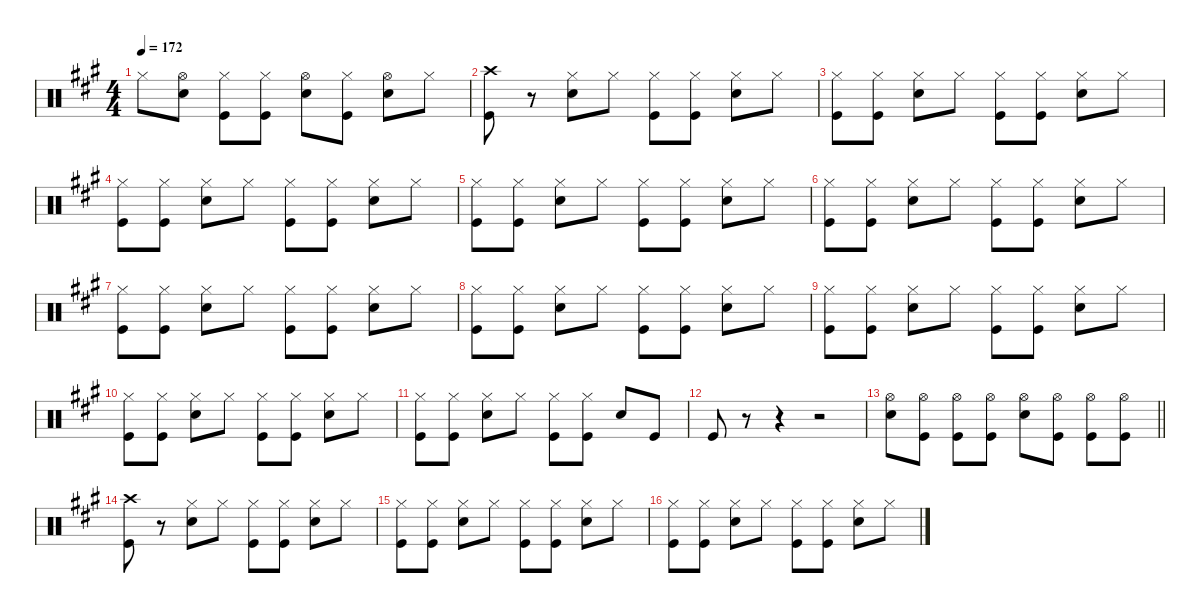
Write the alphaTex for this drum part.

\defaultSystemsLayout 4
\hideDynamics
\bracketExtendMode nobrackets
\singleTrackTrackNamePolicy hidden
\multiTrackTrackNamePolicy hidden
\firstSystemTrackNameMode fullname
\firstSystemTrackNameOrientation horizontal
\otherSystemsTrackNameOrientation horizontal
\track ("Percussion" "drm.") {instrument percussion}
\staff {score}
\articulation defaults
\ts (4 4)
\tempo 172
\clef neutral
\ks a "Hi-Hat (closed)"{acc forcenatural}.8{dy f beam Down}
("Hi-Hat (open)"{acc forcenatural} "Snare (hit) 2"{acc forcenatural}).8{beam Down} ("Hi-Hat (closed)"{acc forcenatural} "Kick (hit)"{acc forcenatural}).8{beam Down} ("Hi-Hat (closed)"{acc forcenatural} "Kick (hit)"{acc forcenatural}).8{beam Down} ("Hi-Hat (open)"{acc forcenatural} "Snare (hit) 2"{acc forcenatural}).8{beam Down} ("Hi-Hat (closed)"{acc forcenatural} "Kick (hit)"{acc forcenatural}).8{beam Down} ("Hi-Hat (open)"{acc forcenatural} "Snare (hit) 2"{acc forcenatural}).8{beam Down} "Hi-Hat (closed)"{acc forcenatural}.8{beam Down} |
("Crash high (hit)"{acc forcenatural} "Kick (hit)"{acc forcenatural}).8{beam Down} r.8{beam Down} ("Hi-Hat (closed)"{acc forcenatural} "Snare (hit) 2"{acc forcenatural}).8{beam Down} "Hi-Hat (closed)"{acc forcenatural}.8{beam Down} ("Hi-Hat (closed)"{acc forcenatural} "Kick (hit)"{acc forcenatural}).8{beam Down} ("Hi-Hat (closed)"{acc forcenatural} "Kick (hit)"{acc forcenatural}).8{beam Down} ("Hi-Hat (closed)"{acc forcenatural} "Snare (hit) 2"{acc forcenatural}).8{beam Down} "Hi-Hat (closed)"{acc forcenatural}.8{beam Down} |
("Hi-Hat (closed)"{acc forcenatural} "Kick (hit)"{acc forcenatural}).8{beam Down} ("Hi-Hat (closed)"{acc forcenatural} "Kick (hit)"{acc forcenatural}).8{beam Down} ("Hi-Hat (closed)"{acc forcenatural} "Snare (hit) 2"{acc forcenatural}).8{beam Down} "Hi-Hat (closed)"{acc forcenatural}.8{beam Down} ("Hi-Hat (closed)"{acc forcenatural} "Kick (hit)"{acc forcenatural}).8{beam Down} ("Hi-Hat (closed)"{acc forcenatural} "Kick (hit)"{acc forcenatural}).8{beam Down} ("Hi-Hat (closed)"{acc forcenatural} "Snare (hit) 2"{acc forcenatural}).8{beam Down} "Hi-Hat (closed)"{acc forcenatural}.8{beam Down} |
("Hi-Hat (closed)"{acc forcenatural} "Kick (hit)"{acc forcenatural}).8{beam Down} ("Hi-Hat (closed)"{acc forcenatural} "Kick (hit)"{acc forcenatural}).8{beam Down} ("Hi-Hat (closed)"{acc forcenatural} "Snare (hit) 2"{acc forcenatural}).8{beam Down} "Hi-Hat (closed)"{acc forcenatural}.8{beam Down} ("Hi-Hat (closed)"{acc forcenatural} "Kick (hit)"{acc forcenatural}).8{beam Down} ("Hi-Hat (closed)"{acc forcenatural} "Kick (hit)"{acc forcenatural}).8{beam Down} ("Hi-Hat (closed)"{acc forcenatural} "Snare (hit) 2"{acc forcenatural}).8{beam Down} "Hi-Hat (closed)"{acc forcenatural}.8{beam Down} |
("Hi-Hat (closed)"{acc forcenatural} "Kick (hit)"{acc forcenatural}).8{beam Down} ("Hi-Hat (closed)"{acc forcenatural} "Kick (hit)"{acc forcenatural}).8{beam Down} ("Hi-Hat (closed)"{acc forcenatural} "Snare (hit) 2"{acc forcenatural}).8{beam Down} "Hi-Hat (closed)"{acc forcenatural}.8{beam Down} ("Hi-Hat (closed)"{acc forcenatural} "Kick (hit)"{acc forcenatural}).8{beam Down} ("Hi-Hat (closed)"{acc forcenatural} "Kick (hit)"{acc forcenatural}).8{beam Down} ("Hi-Hat (closed)"{acc forcenatural} "Snare (hit) 2"{acc forcenatural}).8{beam Down} "Hi-Hat (closed)"{acc forcenatural}.8{beam Down} |
("Hi-Hat (closed)"{acc forcenatural} "Kick (hit)"{acc forcenatural}).8{beam Down} ("Hi-Hat (closed)"{acc forcenatural} "Kick (hit)"{acc forcenatural}).8{beam Down} ("Hi-Hat (closed)"{acc forcenatural} "Snare (hit) 2"{acc forcenatural}).8{beam Down} "Hi-Hat (closed)"{acc forcenatural}.8{beam Down} ("Hi-Hat (closed)"{acc forcenatural} "Kick (hit)"{acc forcenatural}).8{beam Down} ("Hi-Hat (closed)"{acc forcenatural} "Kick (hit)"{acc forcenatural}).8{beam Down} ("Hi-Hat (closed)"{acc forcenatural} "Snare (hit) 2"{acc forcenatural}).8{beam Down} "Hi-Hat (closed)"{acc forcenatural}.8{beam Down} |
("Hi-Hat (closed)"{acc forcenatural} "Kick (hit)"{acc forcenatural}).8{beam Down} ("Hi-Hat (closed)"{acc forcenatural} "Kick (hit)"{acc forcenatural}).8{beam Down} ("Hi-Hat (closed)"{acc forcenatural} "Snare (hit) 2"{acc forcenatural}).8{beam Down} "Hi-Hat (closed)"{acc forcenatural}.8{beam Down} ("Hi-Hat (closed)"{acc forcenatural} "Kick (hit)"{acc forcenatural}).8{beam Down} ("Hi-Hat (closed)"{acc forcenatural} "Kick (hit)"{acc forcenatural}).8{beam Down} ("Hi-Hat (closed)"{acc forcenatural} "Snare (hit) 2"{acc forcenatural}).8{beam Down} "Hi-Hat (closed)"{acc forcenatural}.8{beam Down} |
("Hi-Hat (closed)"{acc forcenatural} "Kick (hit)"{acc forcenatural}).8{beam Down} ("Hi-Hat (closed)"{acc forcenatural} "Kick (hit)"{acc forcenatural}).8{beam Down} ("Hi-Hat (closed)"{acc forcenatural} "Snare (hit) 2"{acc forcenatural}).8{beam Down} "Hi-Hat (closed)"{acc forcenatural}.8{beam Down} ("Hi-Hat (closed)"{acc forcenatural} "Kick (hit)"{acc forcenatural}).8{beam Down} ("Hi-Hat (closed)"{acc forcenatural} "Kick (hit)"{acc forcenatural}).8{beam Down} ("Hi-Hat (closed)"{acc forcenatural} "Snare (hit) 2"{acc forcenatural}).8{beam Down} "Hi-Hat (closed)"{acc forcenatural}.8{beam Down} |
("Hi-Hat (closed)"{acc forcenatural} "Kick (hit)"{acc forcenatural}).8{beam Down} ("Hi-Hat (closed)"{acc forcenatural} "Kick (hit)"{acc forcenatural}).8{beam Down} ("Hi-Hat (closed)"{acc forcenatural} "Snare (hit) 2"{acc forcenatural}).8{beam Down} "Hi-Hat (closed)"{acc forcenatural}.8{beam Down} ("Hi-Hat (closed)"{acc forcenatural} "Kick (hit)"{acc forcenatural}).8{beam Down} ("Hi-Hat (closed)"{acc forcenatural} "Kick (hit)"{acc forcenatural}).8{beam Down} ("Hi-Hat (closed)"{acc forcenatural} "Snare (hit) 2"{acc forcenatural}).8{beam Down} "Hi-Hat (closed)"{acc forcenatural}.8{beam Down} |
("Hi-Hat (closed)"{acc forcenatural} "Kick (hit)"{acc forcenatural}).8{beam Down} ("Hi-Hat (closed)"{acc forcenatural} "Kick (hit)"{acc forcenatural}).8{beam Down} ("Hi-Hat (closed)"{acc forcenatural} "Snare (hit) 2"{acc forcenatural}).8{beam Down} "Hi-Hat (closed)"{acc forcenatural}.8{beam Down} ("Hi-Hat (closed)"{acc forcenatural} "Kick (hit)"{acc forcenatural}).8{beam Down} ("Hi-Hat (closed)"{acc forcenatural} "Kick (hit)"{acc forcenatural}).8{beam Down} ("Hi-Hat (closed)"{acc forcenatural} "Snare (hit) 2"{acc forcenatural}).8{beam Down} "Hi-Hat (closed)"{acc forcenatural}.8{beam Down} |
("Hi-Hat (closed)"{acc forcenatural} "Kick (hit)"{acc forcenatural}).8{beam Down} ("Hi-Hat (closed)"{acc forcenatural} "Kick (hit)"{acc forcenatural}).8{beam Down} ("Hi-Hat (closed)"{acc forcenatural} "Snare (hit) 2"{acc forcenatural}).8{beam Down} "Hi-Hat (closed)"{acc forcenatural}.8{beam Down} ("Hi-Hat (closed)"{acc forcenatural} "Kick (hit)"{acc forcenatural}).8{beam Down} ("Hi-Hat (closed)"{acc forcenatural} "Kick (hit)"{acc forcenatural}).8{beam Down} "Snare (hit) 2"{acc forcenatural}.8{beam Up} "Kick (hit)"{acc forcenatural}.8{beam Up} |
"Kick (hit)"{acc forcenatural}.8{beam Up} r.8{beam Up} r.4{beam Up} r.2{beam Up} |
\barLineRight lightlight
("Hi-Hat (open)"{acc forcenatural} "Snare (hit) 2"{acc forcenatural}).8{beam Down} ("Hi-Hat (open)"{acc forcenatural} "Kick (hit)"{acc forcenatural}).8{beam Down} ("Hi-Hat (open)"{acc forcenatural} "Kick (hit)"{acc forcenatural}).8{beam Down} ("Hi-Hat (open)"{acc forcenatural} "Kick (hit)"{acc forcenatural}).8{beam Down} ("Hi-Hat (open)"{acc forcenatural} "Snare (hit) 2"{acc forcenatural}).8{beam Down} ("Hi-Hat (open)"{acc forcenatural} "Kick (hit)"{acc forcenatural}).8{beam Down} ("Hi-Hat (open)"{acc forcenatural} "Kick (hit)"{acc forcenatural}).8{beam Down} ("Hi-Hat (open)"{acc forcenatural} "Kick (hit)"{acc forcenatural}).8{beam Down} |
("Crash high (hit)"{acc forcenatural} "Kick (hit)"{acc forcenatural}).8{beam Down} r.8{beam Down} ("Hi-Hat (closed)"{acc forcenatural} "Snare (hit) 2"{acc forcenatural}).8{beam Down} "Hi-Hat (closed)"{acc forcenatural}.8{beam Down} ("Hi-Hat (closed)"{acc forcenatural} "Kick (hit)"{acc forcenatural}).8{beam Down} ("Hi-Hat (closed)"{acc forcenatural} "Kick (hit)"{acc forcenatural}).8{beam Down} ("Hi-Hat (closed)"{acc forcenatural} "Snare (hit) 2"{acc forcenatural}).8{beam Down} "Hi-Hat (closed)"{acc forcenatural}.8{beam Down} |
("Hi-Hat (closed)"{acc forcenatural} "Kick (hit)"{acc forcenatural}).8{beam Down} ("Hi-Hat (closed)"{acc forcenatural} "Kick (hit)"{acc forcenatural}).8{beam Down} ("Hi-Hat (closed)"{acc forcenatural} "Snare (hit) 2"{acc forcenatural}).8{beam Down} "Hi-Hat (closed)"{acc forcenatural}.8{beam Down} ("Hi-Hat (closed)"{acc forcenatural} "Kick (hit)"{acc forcenatural}).8{beam Down} ("Hi-Hat (closed)"{acc forcenatural} "Kick (hit)"{acc forcenatural}).8{beam Down} ("Hi-Hat (closed)"{acc forcenatural} "Snare (hit) 2"{acc forcenatural}).8{beam Down} "Hi-Hat (closed)"{acc forcenatural}.8{beam Down} |
("Hi-Hat (closed)"{acc forcenatural} "Kick (hit)"{acc forcenatural}).8{beam Down} ("Hi-Hat (closed)"{acc forcenatural} "Kick (hit)"{acc forcenatural}).8{beam Down} ("Hi-Hat (closed)"{acc forcenatural} "Snare (hit) 2"{acc forcenatural}).8{beam Down} "Hi-Hat (closed)"{acc forcenatural}.8{beam Down} ("Hi-Hat (closed)"{acc forcenatural} "Kick (hit)"{acc forcenatural}).8{beam Down} ("Hi-Hat (closed)"{acc forcenatural} "Kick (hit)"{acc forcenatural}).8{beam Down} ("Hi-Hat (closed)"{acc forcenatural} "Snare (hit) 2"{acc forcenatural}).8{beam Down} "Hi-Hat (closed)"{acc forcenatural}.8{beam Down}
